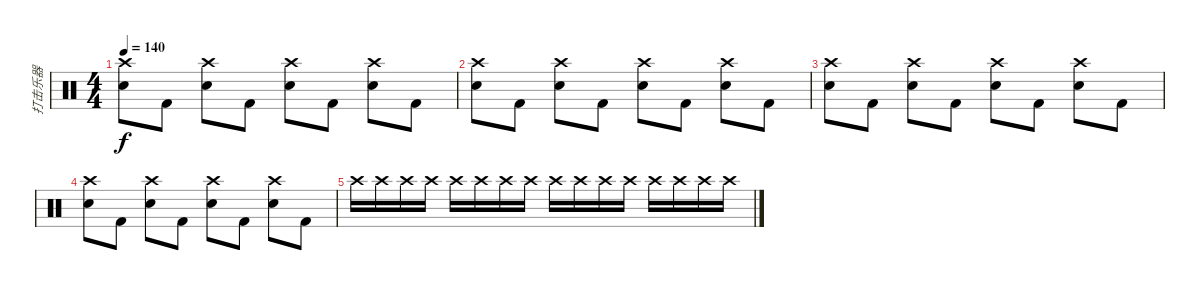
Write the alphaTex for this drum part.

\track ("打击乐器" "打击乐器") {instrument percussion}
\staff {score}
\articulation defaults
\ts (4 4)
\tempo 140
\clef neutral
\ks c
("Crash high (hit)" "Snare (hit) 2").8{dy f} "Kick (hit) 2".8 ("Crash high (hit)" "Snare (hit) 2").8 "Kick (hit) 2".8 ("Crash high (hit)" "Snare (hit) 2").8 "Kick (hit) 2".8 ("Crash high (hit)" "Snare (hit) 2").8 "Kick (hit) 2".8 |
("Crash high (hit)" "Snare (hit) 2").8 "Kick (hit) 2".8 ("Crash high (hit)" "Snare (hit) 2").8 "Kick (hit) 2".8 ("Crash high (hit)" "Snare (hit) 2").8 "Kick (hit) 2".8 ("Crash high (hit)" "Snare (hit) 2").8 "Kick (hit) 2".8 |
("Crash high (hit)" "Snare (hit) 2").8 "Kick (hit) 2".8 ("Crash high (hit)" "Snare (hit) 2").8 "Kick (hit) 2".8 ("Crash high (hit)" "Snare (hit) 2").8 "Kick (hit) 2".8 ("Crash high (hit)" "Snare (hit) 2").8 "Kick (hit) 2".8 |
("Crash high (hit)" "Snare (hit) 2").8 "Kick (hit) 2".8 ("Crash high (hit)" "Snare (hit) 2").8 "Kick (hit) 2".8 ("Crash high (hit)" "Snare (hit) 2").8 "Kick (hit) 2".8 ("Crash high (hit)" "Snare (hit) 2").8 "Kick (hit) 2".8 |
"Crash high (hit)".16 "Crash high (hit)".16 "Crash high (hit)".16 "Crash high (hit)".16 "Crash high (hit)".16 "Crash high (hit)".16 "Crash high (hit)".16 "Crash high (hit)".16 "Crash high (hit)".16 "Crash high (hit)".16 "Crash high (hit)".16 "Crash high (hit)".16 "Crash high (hit)".16 "Crash high (hit)".16 "Crash high (hit)".16 "Crash high (hit)".16
